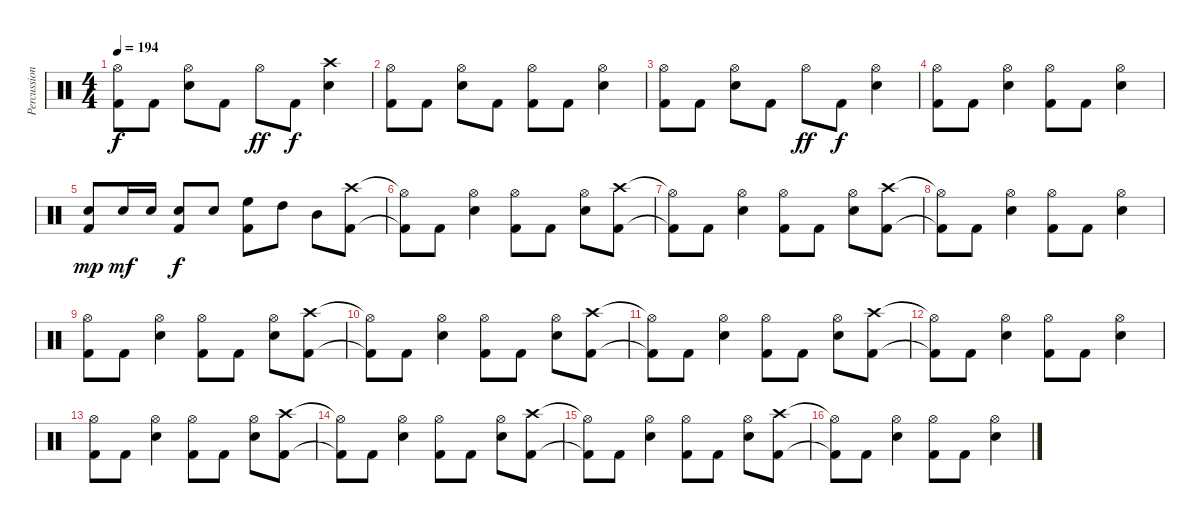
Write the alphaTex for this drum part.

\track ("Percussion" "Percussion") {instrument percussion}
\staff {score}
\articulation defaults
\ts (4 4)
\tempo 194
\clef neutral
\ks c
("Hi-Hat (open)" "Kick (hit) 2").8{dy f} "Kick (hit) 2".8 ("Hi-Hat (open)" "Electric Snare (hit)").8 "Kick (hit) 2".8 "Hi-Hat (open)".8{dy ff} "Kick (hit) 2".8{dy f} ("Crash high (hit)" "Electric Snare (hit)").4 |
("Hi-Hat (open)" "Kick (hit) 2").8 "Kick (hit) 2".8 ("Hi-Hat (open)" "Electric Snare (hit)").8 "Kick (hit) 2".8 ("Hi-Hat (open)" "Kick (hit) 2").8 "Kick (hit) 2".8 ("Hi-Hat (open)" "Electric Snare (hit)").4 |
("Hi-Hat (open)" "Kick (hit) 2").8 "Kick (hit) 2".8 ("Hi-Hat (open)" "Electric Snare (hit)").8 "Kick (hit) 2".8 "Hi-Hat (open)".8{dy ff} "Kick (hit) 2".8{dy f} ("Hi-Hat (open)" "Electric Snare (hit)").4 |
("Hi-Hat (open)" "Kick (hit) 2").8 "Kick (hit) 2".8 ("Hi-Hat (open)" "Electric Snare (hit)").4 ("Hi-Hat (open)" "Kick (hit) 2").8 "Kick (hit) 2".8 ("Hi-Hat (open)" "Electric Snare (hit)").4 |
("Electric Snare (hit)" "Kick (hit) 2").8{dy mp} "Electric Snare (hit)".16{dy mf} "Electric Snare (hit)".16 ("Electric Snare (hit)" "Kick (hit) 2").8{dy f} "Electric Snare (hit)".8 ("High Floor Tom (hit)" "Kick (hit) 2").8 "High Tom (hit)".8 "Mid Tom (hit)".8 ("Crash high (hit)" "Kick (hit) 2").8 |
("Hi-Hat (open)"{t} "Kick (hit) 2"{t}).8 "Kick (hit) 2".8 ("Hi-Hat (open)" "Electric Snare (hit)").4 ("Hi-Hat (open)" "Kick (hit) 2").8 "Kick (hit) 2".8 ("Hi-Hat (open)" "Electric Snare (hit)").8 ("Crash high (hit)" "Kick (hit) 2").8 |
("Hi-Hat (open)"{t} "Kick (hit) 2"{t}).8 "Kick (hit) 2".8 ("Hi-Hat (open)" "Electric Snare (hit)").4 ("Hi-Hat (open)" "Kick (hit) 2").8 "Kick (hit) 2".8 ("Hi-Hat (open)" "Electric Snare (hit)").8 ("Crash high (hit)" "Kick (hit) 2").8 |
("Hi-Hat (open)"{t} "Kick (hit) 2"{t}).8 "Kick (hit) 2".8 ("Hi-Hat (open)" "Electric Snare (hit)").4 ("Hi-Hat (open)" "Kick (hit) 2").8 "Kick (hit) 2".8 ("Hi-Hat (open)" "Electric Snare (hit)").4 |
("Hi-Hat (open)" "Kick (hit) 2").8 "Kick (hit) 2".8 ("Hi-Hat (open)" "Electric Snare (hit)").4 ("Hi-Hat (open)" "Kick (hit) 2").8 "Kick (hit) 2".8 ("Hi-Hat (open)" "Electric Snare (hit)").8 ("Crash high (hit)" "Kick (hit) 2").8 |
("Hi-Hat (open)"{t} "Kick (hit) 2"{t}).8 "Kick (hit) 2".8 ("Hi-Hat (open)" "Electric Snare (hit)").4 ("Hi-Hat (open)" "Kick (hit) 2").8 "Kick (hit) 2".8 ("Hi-Hat (open)" "Electric Snare (hit)").8 ("Crash high (hit)" "Kick (hit) 2").8 |
("Hi-Hat (open)"{t} "Kick (hit) 2"{t}).8 "Kick (hit) 2".8 ("Hi-Hat (open)" "Electric Snare (hit)").4 ("Hi-Hat (open)" "Kick (hit) 2").8 "Kick (hit) 2".8 ("Hi-Hat (open)" "Electric Snare (hit)").8 ("Crash high (hit)" "Kick (hit) 2").8 |
("Hi-Hat (open)"{t} "Kick (hit) 2"{t}).8 "Kick (hit) 2".8 ("Hi-Hat (open)" "Electric Snare (hit)").4 ("Hi-Hat (open)" "Kick (hit) 2").8 "Kick (hit) 2".8 ("Hi-Hat (open)" "Electric Snare (hit)").4 |
("Hi-Hat (open)" "Kick (hit) 2").8 "Kick (hit) 2".8 ("Hi-Hat (open)" "Electric Snare (hit)").4 ("Hi-Hat (open)" "Kick (hit) 2").8 "Kick (hit) 2".8 ("Hi-Hat (open)" "Electric Snare (hit)").8 ("Crash high (hit)" "Kick (hit) 2").8 |
("Hi-Hat (open)"{t} "Kick (hit) 2"{t}).8 "Kick (hit) 2".8 ("Hi-Hat (open)" "Electric Snare (hit)").4 ("Hi-Hat (open)" "Kick (hit) 2").8 "Kick (hit) 2".8 ("Hi-Hat (open)" "Electric Snare (hit)").8 ("Crash high (hit)" "Kick (hit) 2").8 |
("Hi-Hat (open)"{t} "Kick (hit) 2"{t}).8 "Kick (hit) 2".8 ("Hi-Hat (open)" "Electric Snare (hit)").4 ("Hi-Hat (open)" "Kick (hit) 2").8 "Kick (hit) 2".8 ("Hi-Hat (open)" "Electric Snare (hit)").8 ("Crash high (hit)" "Kick (hit) 2").8 |
("Hi-Hat (open)"{t} "Kick (hit) 2"{t}).8 "Kick (hit) 2".8 ("Hi-Hat (open)" "Electric Snare (hit)").4 ("Hi-Hat (open)" "Kick (hit) 2").8 "Kick (hit) 2".8 ("Hi-Hat (open)" "Electric Snare (hit)").4
